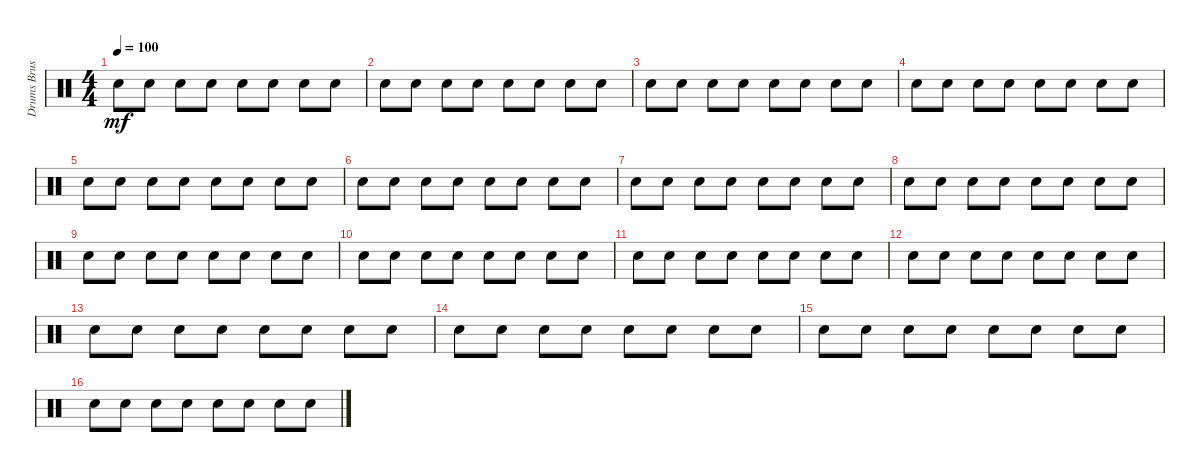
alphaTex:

\track ("Drums Brush Set" "Drums Brus") {instrument percussion}
\staff {score}
\articulation defaults
\ts (4 4)
\tempo 100
\clef neutral
\ks c "Snare (hit) 2".8{dy mf} "Snare (hit) 2".8 "Hand Clap (hit)".8 "Snare (hit) 2".8 "Snare (hit) 2".8 "Snare (hit) 2".8 "Hand Clap (hit)".8 "Snare (hit) 2".8
|
"Snare (hit) 2".8 "Snare (hit) 2".8 "Hand Clap (hit)".8 "Snare (hit) 2".8 "Snare (hit) 2".8 "Snare (hit) 2".8 "Hand Clap (hit)".8 "Snare (hit) 2".8 |
"Snare (hit) 2".8 "Snare (hit) 2".8 "Hand Clap (hit)".8 "Snare (hit) 2".8 "Snare (hit) 2".8 "Snare (hit) 2".8 "Hand Clap (hit)".8 "Snare (hit) 2".8 |
"Snare (hit) 2".8 "Snare (hit) 2".8 "Hand Clap (hit)".8 "Hand Clap (hit)".8 "Snare (hit) 2".8 "Snare (hit) 2".8 "Hand Clap (hit)".8 "Snare (hit) 2".8 |
"Snare (hit) 2".8 "Snare (hit) 2".8 "Hand Clap (hit)".8 "Hand Clap (hit)".8 "Snare (hit) 2".8 "Snare (hit) 2".8 "Hand Clap (hit)".8 "Snare (hit) 2".8 |
"Snare (hit) 2".8 "Snare (hit) 2".8 "Hand Clap (hit)".8 "Hand Clap (hit)".8 "Snare (hit) 2".8 "Snare (hit) 2".8 "Hand Clap (hit)".8 "Snare (hit) 2".8 |
"Snare (hit) 2".8 "Snare (hit) 2".8 "Hand Clap (hit)".8 "Hand Clap (hit)".8 "Snare (hit) 2".8 "Snare (hit) 2".8 "Hand Clap (hit)".8 "Snare (hit) 2".8 |
"Snare (hit) 2".8 "Snare (hit) 2".8 "Hand Clap (hit)".8 "Hand Clap (hit)".8 "Snare (hit) 2".8 "Snare (hit) 2".8 "Hand Clap (hit)".8 "Snare (hit) 2".8 |
"Snare (hit) 2".8 "Snare (hit) 2".8 "Hand Clap (hit)".8 "Hand Clap (hit)".8 "Snare (hit) 2".8 "Snare (hit) 2".8 "Hand Clap (hit)".8 "Snare (hit) 2".8 |
"Snare (hit) 2".8 "Snare (hit) 2".8 "Hand Clap (hit)".8 "Hand Clap (hit)".8 "Snare (hit) 2".8 "Snare (hit) 2".8 "Hand Clap (hit)".8 "Snare (hit) 2".8 |
"Snare (hit) 2".8 "Snare (hit) 2".8 "Hand Clap (hit)".8 "Snare (hit) 2".8 "Hand Clap (hit)".8 "Snare (hit) 2".8 "Hand Clap (hit)".8 "Snare (hit) 2".8 |
"Snare (hit) 2".8 "Snare (hit) 2".8 "Hand Clap (hit)".8 "Snare (hit) 2".8 "Snare (hit) 2".8 "Snare (hit) 2".8 "Hand Clap (hit)".8 "Snare (hit) 2".8 |
"Snare (hit) 2".8 "Snare (hit) 2".8 "Hand Clap (hit)".8 "Snare (hit) 2".8 "Snare (hit) 2".8 "Snare (hit) 2".8 "Hand Clap (hit)".8 "Snare (hit) 2".8 |
"Snare (hit) 2".8 "Snare (hit) 2".8 "Hand Clap (hit)".8 "Snare (hit) 2".8 "Snare (hit) 2".8 "Snare (hit) 2".8 "Hand Clap (hit)".8 "Snare (hit) 2".8 |
"Snare (hit) 2".8 "Snare (hit) 2".8 "Hand Clap (hit)".8 "Snare (hit) 2".8 "Snare (hit) 2".8 "Snare (hit) 2".8 "Hand Clap (hit)".8 "Snare (hit) 2".8 |
"Snare (hit) 2".8 "Snare (hit) 2".8 "Hand Clap (hit)".8 "Snare (hit) 2".8 "Snare (hit) 2".8 "Snare (hit) 2".8 "Hand Clap (hit)".8 "Snare (hit) 2".8
